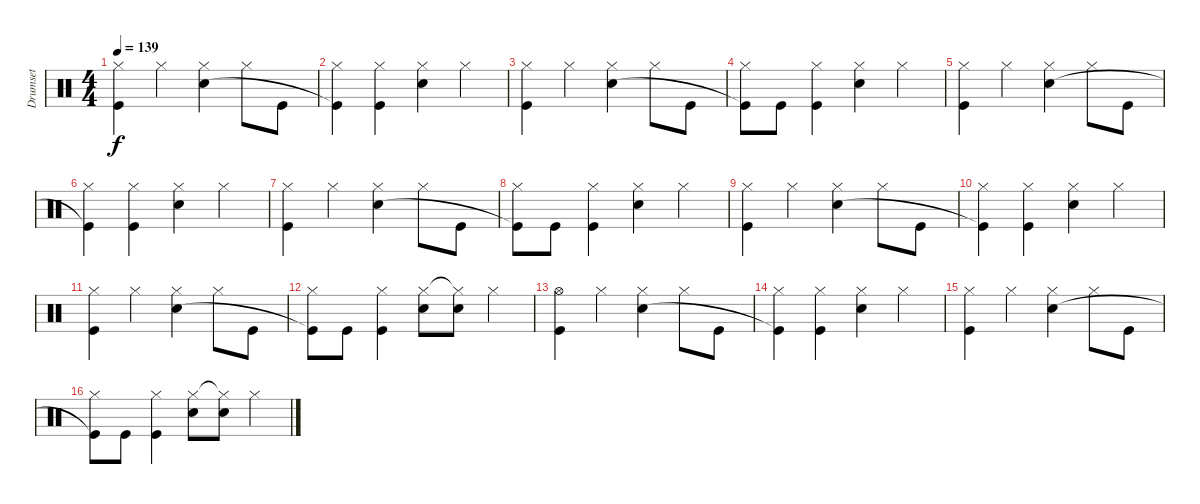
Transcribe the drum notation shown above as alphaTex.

\track ("Drumset" "Drumset") {instrument percussion}
\staff {score}
\articulation defaults
\ts (4 4)
\tempo 139
\clef neutral
\ks c
("Hi-Hat (closed)" "Kick (hit)").4{dy f} "Hi-Hat (closed)".4 ("Hi-Hat (closed)" "Snare (hit) 2").4 "Hi-Hat (closed)".8 "Kick (hit)".8 |
("Hi-Hat (closed)" "Kick (hit)"{t}).4 ("Hi-Hat (closed)" "Kick (hit)").4 ("Hi-Hat (closed)" "Snare (hit) 2").4 "Hi-Hat (closed)".4 |
("Hi-Hat (closed)" "Kick (hit)").4 "Hi-Hat (closed)".4 ("Hi-Hat (closed)" "Snare (hit) 2").4 "Hi-Hat (closed)".8 "Kick (hit)".8 |
("Hi-Hat (closed)" "Kick (hit)"{t}).8 "Kick (hit)".8 ("Hi-Hat (closed)" "Kick (hit)").4 ("Hi-Hat (closed)" "Snare (hit) 2").4 "Hi-Hat (closed)".4 |
("Hi-Hat (closed)" "Kick (hit)").4 "Hi-Hat (closed)".4 ("Hi-Hat (closed)" "Snare (hit) 2").4 "Hi-Hat (closed)".8 "Kick (hit)".8 |
("Hi-Hat (closed)" "Kick (hit)"{t}).4 ("Hi-Hat (closed)" "Kick (hit)").4 ("Hi-Hat (closed)" "Snare (hit) 2").4 "Hi-Hat (closed)".4 |
("Hi-Hat (closed)" "Kick (hit)").4 "Hi-Hat (closed)".4 ("Hi-Hat (closed)" "Snare (hit) 2").4 "Hi-Hat (closed)".8 "Kick (hit)".8 |
("Hi-Hat (closed)" "Kick (hit)"{t}).8 "Kick (hit)".8 ("Hi-Hat (closed)" "Kick (hit)").4 ("Hi-Hat (closed)" "Snare (hit) 2").4 "Hi-Hat (closed)".4 |
("Hi-Hat (closed)" "Kick (hit)").4 "Hi-Hat (closed)".4 ("Hi-Hat (closed)" "Snare (hit) 2").4 "Hi-Hat (closed)".8 "Kick (hit)".8 |
("Hi-Hat (closed)" "Kick (hit)"{t}).4 ("Hi-Hat (closed)" "Kick (hit)").4 ("Hi-Hat (closed)" "Snare (hit) 2").4 "Hi-Hat (closed)".4 |
("Hi-Hat (closed)" "Kick (hit)").4 "Hi-Hat (closed)".4 ("Hi-Hat (closed)" "Snare (hit) 2").4 "Hi-Hat (closed)".8 "Kick (hit)".8 |
("Hi-Hat (closed)" "Kick (hit)"{t}).8 "Kick (hit)".8 ("Hi-Hat (closed)" "Kick (hit)").4 ("Hi-Hat (closed)" "Snare (hit) 2").8 ("Hi-Hat (closed)"{t} "Snare (hit) 2").8 "Hi-Hat (closed)".4 |
("Hi-Hat (open)" "Kick (hit)").4 "Hi-Hat (closed)".4 ("Hi-Hat (closed)" "Snare (hit) 2").4 "Hi-Hat (closed)".8 "Kick (hit)".8 |
("Hi-Hat (closed)" "Kick (hit)"{t}).4 ("Hi-Hat (closed)" "Kick (hit)").4 ("Hi-Hat (closed)" "Snare (hit) 2").4 "Hi-Hat (closed)".4 |
("Hi-Hat (closed)" "Kick (hit)").4 "Hi-Hat (closed)".4 ("Hi-Hat (closed)" "Snare (hit) 2").4 "Hi-Hat (closed)".8 "Kick (hit)".8 |
("Hi-Hat (closed)" "Kick (hit)"{t}).8 "Kick (hit)".8 ("Hi-Hat (closed)" "Kick (hit)").4 ("Hi-Hat (closed)" "Snare (hit) 2").8 ("Hi-Hat (closed)"{t} "Snare (hit) 2").8 "Hi-Hat (closed)".4
